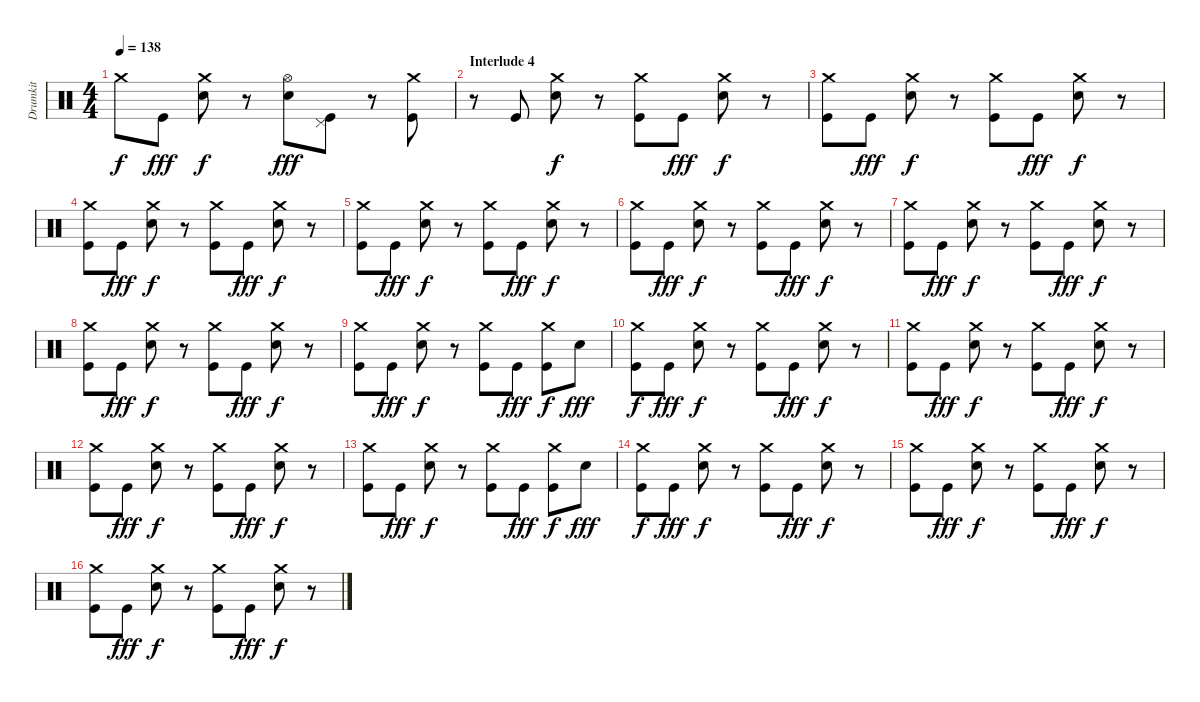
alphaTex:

\track ("Drumkit" "Drumkit") {instrument percussion}
\staff {score}
\articulation defaults
\ts (4 4)
\tempo 138
\clef neutral
\ks c "Crash medium (hit)".8{dy f} "Kick (hit)".8{dy fff}
("Crash medium (hit)" "Snare (hit) 2").8{dy f} r.8 ("Hi-Hat (open)" "Snare (hit) 2").8{dy fff} ("Pedal Hi-Hat (hit)" "Kick (hit)").8 r.8 ("Crash medium (hit)" "Kick (hit)").8 |
\section ("" "Interlude 4")
r.8 "Kick (hit)".8 ("Crash medium (hit)" "Snare (hit) 2").8{dy f} r.8 ("Crash medium (hit)" "Kick (hit)").8 "Kick (hit)".8{dy fff} ("Crash medium (hit)" "Snare (hit) 2").8{dy f} r.8 |
("Crash medium (hit)" "Kick (hit)").8 "Kick (hit)".8{dy fff} ("Crash medium (hit)" "Snare (hit) 2").8{dy f} r.8 ("Crash medium (hit)" "Kick (hit)").8 "Kick (hit)".8{dy fff} ("Crash medium (hit)" "Snare (hit) 2").8{dy f} r.8 |
("Crash medium (hit)" "Kick (hit)").8 "Kick (hit)".8{dy fff} ("Crash medium (hit)" "Snare (hit) 2").8{dy f} r.8 ("Crash medium (hit)" "Kick (hit)").8 "Kick (hit)".8{dy fff} ("Crash medium (hit)" "Snare (hit) 2").8{dy f} r.8 |
("Crash medium (hit)" "Kick (hit)").8 "Kick (hit)".8{dy fff} ("Crash medium (hit)" "Snare (hit) 2").8{dy f} r.8 ("Crash medium (hit)" "Kick (hit)").8 "Kick (hit)".8{dy fff} ("Crash medium (hit)" "Snare (hit) 2").8{dy f} r.8 |
("Crash medium (hit)" "Kick (hit)").8 "Kick (hit)".8{dy fff} ("Crash medium (hit)" "Snare (hit) 2").8{dy f} r.8 ("Crash medium (hit)" "Kick (hit)").8 "Kick (hit)".8{dy fff} ("Crash medium (hit)" "Snare (hit) 2").8{dy f} r.8 |
("Crash medium (hit)" "Kick (hit)").8 "Kick (hit)".8{dy fff} ("Crash medium (hit)" "Snare (hit) 2").8{dy f} r.8 ("Crash medium (hit)" "Kick (hit)").8 "Kick (hit)".8{dy fff} ("Crash medium (hit)" "Snare (hit) 2").8{dy f} r.8 |
("Crash medium (hit)" "Kick (hit)").8 "Kick (hit)".8{dy fff} ("Crash medium (hit)" "Snare (hit) 2").8{dy f} r.8 ("Crash medium (hit)" "Kick (hit)").8 "Kick (hit)".8{dy fff} ("Crash medium (hit)" "Snare (hit) 2").8{dy f} r.8 |
("Crash medium (hit)" "Kick (hit)").8 "Kick (hit)".8{dy fff} ("Crash medium (hit)" "Snare (hit) 2").8{dy f} r.8 ("Crash medium (hit)" "Kick (hit)").8 "Kick (hit)".8{dy fff} ("Crash medium (hit)" "Kick (hit)").8{dy f} "Snare (hit) 2".8{dy fff} |
("Crash medium (hit)" "Kick (hit)").8{dy f} "Kick (hit)".8{dy fff} ("Crash medium (hit)" "Snare (hit) 2").8{dy f} r.8 ("Crash medium (hit)" "Kick (hit)").8 "Kick (hit)".8{dy fff} ("Crash medium (hit)" "Snare (hit) 2").8{dy f} r.8 |
("Crash medium (hit)" "Kick (hit)").8 "Kick (hit)".8{dy fff} ("Crash medium (hit)" "Snare (hit) 2").8{dy f} r.8 ("Crash medium (hit)" "Kick (hit)").8 "Kick (hit)".8{dy fff} ("Crash medium (hit)" "Snare (hit) 2").8{dy f} r.8 |
("Crash medium (hit)" "Kick (hit)").8 "Kick (hit)".8{dy fff} ("Crash medium (hit)" "Snare (hit) 2").8{dy f} r.8 ("Crash medium (hit)" "Kick (hit)").8 "Kick (hit)".8{dy fff} ("Crash medium (hit)" "Snare (hit) 2").8{dy f} r.8 |
("Crash medium (hit)" "Kick (hit)").8 "Kick (hit)".8{dy fff} ("Crash medium (hit)" "Snare (hit) 2").8{dy f} r.8 ("Crash medium (hit)" "Kick (hit)").8 "Kick (hit)".8{dy fff} ("Crash medium (hit)" "Kick (hit)").8{dy f} "Snare (hit) 2".8{dy fff} |
("Crash medium (hit)" "Kick (hit)").8{dy f} "Kick (hit)".8{dy fff} ("Crash medium (hit)" "Snare (hit) 2").8{dy f} r.8 ("Crash medium (hit)" "Kick (hit)").8 "Kick (hit)".8{dy fff} ("Crash medium (hit)" "Snare (hit) 2").8{dy f} r.8 |
("Crash medium (hit)" "Kick (hit)").8 "Kick (hit)".8{dy fff} ("Crash medium (hit)" "Snare (hit) 2").8{dy f} r.8 ("Crash medium (hit)" "Kick (hit)").8 "Kick (hit)".8{dy fff} ("Crash medium (hit)" "Snare (hit) 2").8{dy f} r.8 |
("Crash medium (hit)" "Kick (hit)").8 "Kick (hit)".8{dy fff} ("Crash medium (hit)" "Snare (hit) 2").8{dy f} r.8 ("Crash medium (hit)" "Kick (hit)").8 "Kick (hit)".8{dy fff} ("Crash medium (hit)" "Snare (hit) 2").8{dy f} r.8
